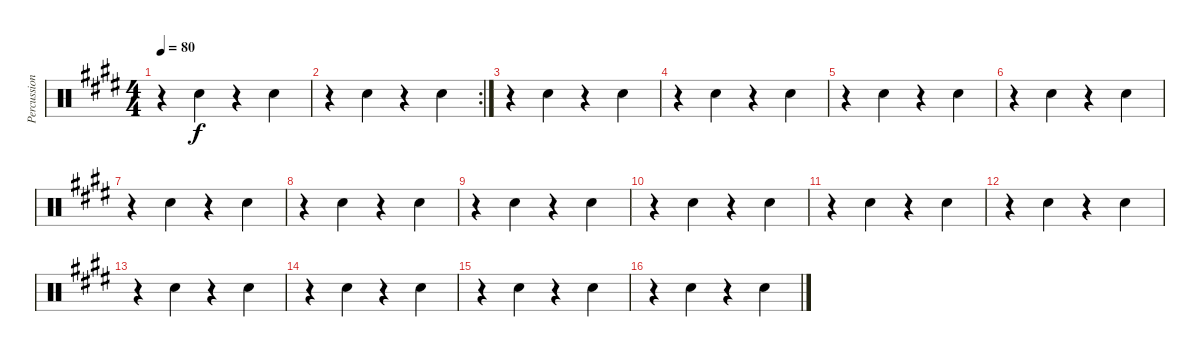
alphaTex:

\track ("Percussion" "Percussion") {instrument percussion}
\staff {score}
\articulation defaults
\ts (4 4)
\tempo 80
\clef neutral
\ks c#minor
r.4{dy f} "Hand Clap (hit)".4 r.4 "Hand Clap (hit)".4 |
\rc 2
r.4 "Hand Clap (hit)".4 r.4 "Hand Clap (hit)".4 |
r.4 "Hand Clap (hit)".4 r.4 "Hand Clap (hit)".4 |
r.4 "Hand Clap (hit)".4 r.4 "Hand Clap (hit)".4 |
r.4 "Hand Clap (hit)".4 r.4 "Hand Clap (hit)".4 |
r.4 "Hand Clap (hit)".4 r.4 "Hand Clap (hit)".4 |
r.4 "Hand Clap (hit)".4 r.4 "Hand Clap (hit)".4 |
r.4 "Hand Clap (hit)".4 r.4 "Hand Clap (hit)".4 |
r.4 "Hand Clap (hit)".4 r.4 "Hand Clap (hit)".4 |
r.4 "Hand Clap (hit)".4 r.4 "Hand Clap (hit)".4 |
r.4 "Hand Clap (hit)".4 r.4 "Hand Clap (hit)".4 |
r.4 "Hand Clap (hit)".4 r.4 "Hand Clap (hit)".4 |
r.4 "Hand Clap (hit)".4 r.4 "Hand Clap (hit)".4 |
r.4 "Hand Clap (hit)".4 r.4 "Hand Clap (hit)".4 |
r.4 "Hand Clap (hit)".4 r.4 "Hand Clap (hit)".4 |
r.4 "Hand Clap (hit)".4 r.4 "Hand Clap (hit)".4
